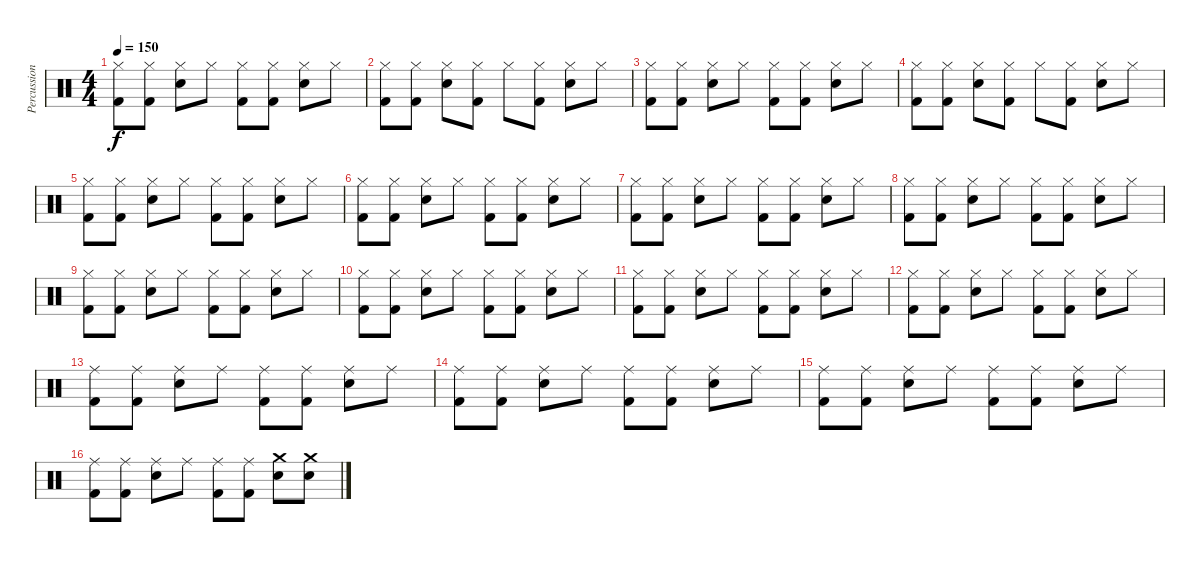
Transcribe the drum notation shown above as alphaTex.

\track ("Percussion" "Percussion") {instrument percussion}
\staff {score}
\articulation defaults
\ts (4 4)
\tempo 150
\clef neutral
\ks c
("Hi-Hat (closed)" "Kick (hit) 2").8{dy f} ("Hi-Hat (closed)" "Kick (hit) 2").8 ("Hi-Hat (closed)" "Electric Snare (hit)").8 "Hi-Hat (closed)".8 ("Hi-Hat (closed)" "Kick (hit) 2").8 ("Hi-Hat (closed)" "Kick (hit) 2").8 ("Hi-Hat (closed)" "Electric Snare (hit)").8 "Hi-Hat (closed)".8 |
("Hi-Hat (closed)" "Kick (hit) 2").8 ("Hi-Hat (closed)" "Kick (hit) 2").8 ("Hi-Hat (closed)" "Electric Snare (hit)").8 ("Hi-Hat (closed)" "Kick (hit) 2").8 "Hi-Hat (closed)".8 ("Hi-Hat (closed)" "Kick (hit) 2").8 ("Hi-Hat (closed)" "Electric Snare (hit)").8 "Hi-Hat (closed)".8 |
("Hi-Hat (closed)" "Kick (hit) 2").8 ("Hi-Hat (closed)" "Kick (hit) 2").8 ("Hi-Hat (closed)" "Electric Snare (hit)").8 "Hi-Hat (closed)".8 ("Hi-Hat (closed)" "Kick (hit) 2").8 ("Hi-Hat (closed)" "Kick (hit) 2").8 ("Hi-Hat (closed)" "Electric Snare (hit)").8 "Hi-Hat (closed)".8 |
("Hi-Hat (closed)" "Kick (hit) 2").8 ("Hi-Hat (closed)" "Kick (hit) 2").8 ("Hi-Hat (closed)" "Electric Snare (hit)").8 ("Hi-Hat (closed)" "Kick (hit) 2").8 "Hi-Hat (closed)".8 ("Hi-Hat (closed)" "Kick (hit) 2").8 ("Hi-Hat (closed)" "Electric Snare (hit)").8 "Hi-Hat (closed)".8 |
("Hi-Hat (closed)" "Kick (hit) 2").8 ("Hi-Hat (closed)" "Kick (hit) 2").8 ("Hi-Hat (closed)" "Electric Snare (hit)").8 "Hi-Hat (closed)".8 ("Hi-Hat (closed)" "Kick (hit) 2").8 ("Hi-Hat (closed)" "Kick (hit) 2").8 ("Hi-Hat (closed)" "Electric Snare (hit)").8 "Hi-Hat (closed)".8 |
("Hi-Hat (closed)" "Kick (hit) 2").8 ("Hi-Hat (closed)" "Kick (hit) 2").8 ("Hi-Hat (closed)" "Electric Snare (hit)").8 "Hi-Hat (closed)".8 ("Hi-Hat (closed)" "Kick (hit) 2").8 ("Hi-Hat (closed)" "Kick (hit) 2").8 ("Hi-Hat (closed)" "Electric Snare (hit)").8 "Hi-Hat (closed)".8 |
("Hi-Hat (closed)" "Kick (hit) 2").8 ("Hi-Hat (closed)" "Kick (hit) 2").8 ("Hi-Hat (closed)" "Electric Snare (hit)").8 "Hi-Hat (closed)".8 ("Hi-Hat (closed)" "Kick (hit) 2").8 ("Hi-Hat (closed)" "Kick (hit) 2").8 ("Hi-Hat (closed)" "Electric Snare (hit)").8 "Hi-Hat (closed)".8 |
("Hi-Hat (closed)" "Kick (hit) 2").8 ("Hi-Hat (closed)" "Kick (hit) 2").8 ("Hi-Hat (closed)" "Electric Snare (hit)").8 "Hi-Hat (closed)".8 ("Hi-Hat (closed)" "Kick (hit) 2").8 ("Hi-Hat (closed)" "Kick (hit) 2").8 ("Hi-Hat (closed)" "Electric Snare (hit)").8 "Hi-Hat (closed)".8 |
("Hi-Hat (closed)" "Kick (hit) 2").8 ("Hi-Hat (closed)" "Kick (hit) 2").8 ("Hi-Hat (closed)" "Electric Snare (hit)").8 "Hi-Hat (closed)".8 ("Hi-Hat (closed)" "Kick (hit) 2").8 ("Hi-Hat (closed)" "Kick (hit) 2").8 ("Hi-Hat (closed)" "Electric Snare (hit)").8 "Hi-Hat (closed)".8 |
("Hi-Hat (closed)" "Kick (hit) 2").8 ("Hi-Hat (closed)" "Kick (hit) 2").8 ("Hi-Hat (closed)" "Electric Snare (hit)").8 "Hi-Hat (closed)".8 ("Hi-Hat (closed)" "Kick (hit) 2").8 ("Hi-Hat (closed)" "Kick (hit) 2").8 ("Hi-Hat (closed)" "Electric Snare (hit)").8 "Hi-Hat (closed)".8 |
("Hi-Hat (closed)" "Kick (hit) 2").8 ("Hi-Hat (closed)" "Kick (hit) 2").8 ("Hi-Hat (closed)" "Electric Snare (hit)").8 "Hi-Hat (closed)".8 ("Hi-Hat (closed)" "Kick (hit) 2").8 ("Hi-Hat (closed)" "Kick (hit) 2").8 ("Hi-Hat (closed)" "Electric Snare (hit)").8 "Hi-Hat (closed)".8 |
("Hi-Hat (closed)" "Kick (hit) 2").8 ("Hi-Hat (closed)" "Kick (hit) 2").8 ("Hi-Hat (closed)" "Electric Snare (hit)").8 "Hi-Hat (closed)".8 ("Hi-Hat (closed)" "Kick (hit) 2").8 ("Hi-Hat (closed)" "Kick (hit) 2").8 ("Hi-Hat (closed)" "Electric Snare (hit)").8 "Hi-Hat (closed)".8 |
("Ride (middle)" "Kick (hit) 2").8 ("Ride (middle)" "Kick (hit) 2").8 ("Ride (middle)" "Electric Snare (hit)").8 "Ride (middle)".8 ("Ride (middle)" "Kick (hit) 2").8 ("Ride (middle)" "Kick (hit) 2").8 ("Ride (middle)" "Electric Snare (hit)").8 "Ride (middle)".8 |
("Ride (middle)" "Kick (hit) 2").8 ("Ride (middle)" "Kick (hit) 2").8 ("Ride (middle)" "Electric Snare (hit)").8 "Ride (middle)".8 ("Ride (middle)" "Kick (hit) 2").8 ("Ride (middle)" "Kick (hit) 2").8 ("Ride (middle)" "Electric Snare (hit)").8 "Ride (middle)".8 |
("Ride (middle)" "Kick (hit) 2").8 ("Ride (middle)" "Kick (hit) 2").8 ("Ride (middle)" "Electric Snare (hit)").8 "Ride (middle)".8 ("Ride (middle)" "Kick (hit) 2").8 ("Ride (middle)" "Kick (hit) 2").8 ("Ride (middle)" "Electric Snare (hit)").8 "Ride (middle)".8 |
("Ride (middle)" "Kick (hit) 2").8 ("Ride (middle)" "Kick (hit) 2").8 ("Ride (middle)" "Electric Snare (hit)").8 "Ride (middle)".8 ("Ride (middle)" "Kick (hit) 2").8 ("Ride (middle)" "Kick (hit) 2").8 ("Crash medium (hit)" "Electric Snare (hit)").8 ("Crash medium (hit)" "Electric Snare (hit)").8
